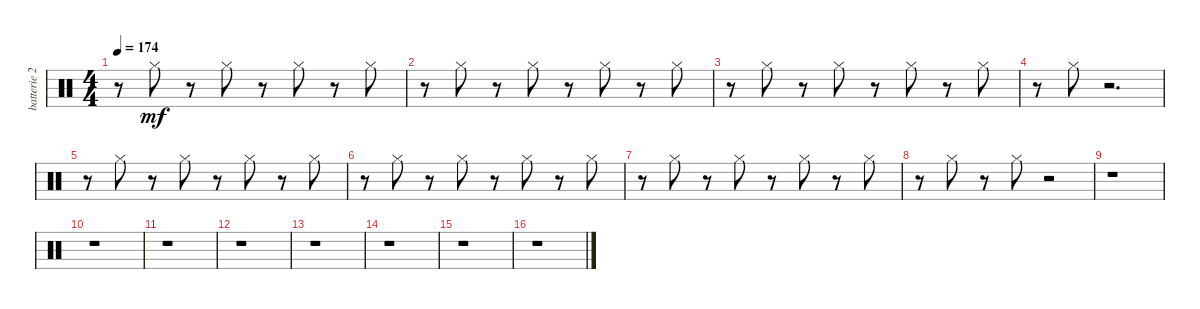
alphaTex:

\track ("batterie 2" "batterie 2") {instrument percussion}
\staff {score}
\articulation defaults
\ts (4 4)
\tempo 174
\clef neutral
\ks c
r.8{dy mf} "Hi-Hat (closed)".8 r.8 "Hi-Hat (closed)".8 r.8 "Hi-Hat (closed)".8 r.8 "Hi-Hat (closed)".8 |
r.8 "Hi-Hat (closed)".8 r.8 "Hi-Hat (closed)".8 r.8 "Hi-Hat (closed)".8 r.8 "Hi-Hat (closed)".8 |
r.8 "Hi-Hat (closed)".8 r.8 "Hi-Hat (closed)".8 r.8 "Hi-Hat (closed)".8 r.8 "Hi-Hat (closed)".8 |
r.8 "Hi-Hat (closed)".8 r.2{d} |
r.8 "Hi-Hat (closed)".8 r.8 "Hi-Hat (closed)".8 r.8 "Hi-Hat (closed)".8 r.8 "Hi-Hat (closed)".8 |
r.8 "Hi-Hat (closed)".8 r.8 "Hi-Hat (closed)".8 r.8 "Hi-Hat (closed)".8 r.8 "Hi-Hat (closed)".8 |
r.8 "Hi-Hat (closed)".8 r.8 "Hi-Hat (closed)".8 r.8 "Hi-Hat (closed)".8 r.8 "Hi-Hat (closed)".8 |
r.8 "Hi-Hat (closed)".8 r.8 "Hi-Hat (closed)".8 r.2 |
r.1 |
r.1 |
r.1 |
r.1 |
r.1 |
r.1 |
r.1 |
r.1
